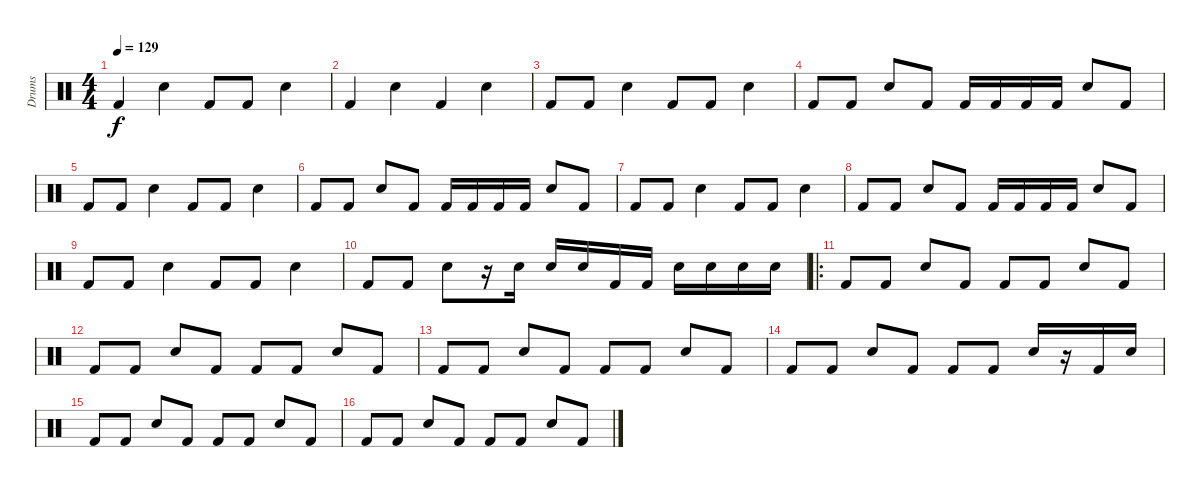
\track ("Drums" "Drums") {instrument percussion}
\staff {score}
\articulation defaults
\ts (4 4)
\tempo 129
\clef neutral
\ks c "Kick (hit) 2".4{dy f} "Snare (hit) 2".4 "Kick (hit) 2".8 "Kick (hit) 2".8 "Snare (hit) 2".4
|
"Kick (hit) 2".4 "Snare (hit) 2".4 "Kick (hit) 2".4 "Snare (hit) 2".4 |
"Kick (hit) 2".8 "Kick (hit) 2".8 "Snare (hit) 2".4 "Kick (hit) 2".8 "Kick (hit) 2".8 "Snare (hit) 2".4 |
"Kick (hit) 2".8 "Kick (hit) 2".8 "Snare (hit) 2".8 "Kick (hit) 2".8 "Kick (hit) 2".16 "Kick (hit) 2".16 "Kick (hit) 2".16 "Kick (hit) 2".16 "Snare (hit) 2".8 "Kick (hit) 2".8 |
"Kick (hit) 2".8 "Kick (hit) 2".8 "Snare (hit) 2".4 "Kick (hit) 2".8 "Kick (hit) 2".8 "Snare (hit) 2".4 |
"Kick (hit) 2".8 "Kick (hit) 2".8 "Snare (hit) 2".8 "Kick (hit) 2".8 "Kick (hit) 2".16 "Kick (hit) 2".16 "Kick (hit) 2".16 "Kick (hit) 2".16 "Snare (hit) 2".8 "Kick (hit) 2".8 |
"Kick (hit) 2".8 "Kick (hit) 2".8 "Snare (hit) 2".4 "Kick (hit) 2".8 "Kick (hit) 2".8 "Snare (hit) 2".4 |
"Kick (hit) 2".8 "Kick (hit) 2".8 "Snare (hit) 2".8 "Kick (hit) 2".8 "Kick (hit) 2".16 "Kick (hit) 2".16 "Kick (hit) 2".16 "Kick (hit) 2".16 "Snare (hit) 2".8 "Kick (hit) 2".8 |
"Kick (hit) 2".8 "Kick (hit) 2".8 "Snare (hit) 2".4 "Kick (hit) 2".8 "Kick (hit) 2".8 "Snare (hit) 2".4 |
"Kick (hit) 2".8 "Kick (hit) 2".8 "Snare (hit) 2".8 r.16 "Snare (hit) 2".16 "Snare (hit) 2".16 "Snare (hit) 2".16 "Kick (hit) 2".16 "Kick (hit) 2".16 "Snare (hit) 2".16 "Snare (hit) 2".16 "Snare (hit) 2".16 "Snare (hit) 2".16 |
\ro "Kick (hit) 2".8 "Kick (hit) 2".8 "Snare (hit) 2".8 "Kick (hit) 2".8 "Kick (hit) 2".8 "Kick (hit) 2".8 "Snare (hit) 2".8 "Kick (hit) 2".8
|
"Kick (hit) 2".8 "Kick (hit) 2".8 "Snare (hit) 2".8 "Kick (hit) 2".8 "Kick (hit) 2".8 "Kick (hit) 2".8 "Snare (hit) 2".8 "Kick (hit) 2".8 |
"Kick (hit) 2".8 "Kick (hit) 2".8 "Snare (hit) 2".8 "Kick (hit) 2".8 "Kick (hit) 2".8 "Kick (hit) 2".8 "Snare (hit) 2".8 "Kick (hit) 2".8 |
"Kick (hit) 2".8 "Kick (hit) 2".8 "Snare (hit) 2".8 "Kick (hit) 2".8 "Kick (hit) 2".8 "Kick (hit) 2".8 "Snare (hit) 2".16 r.16 "Kick (hit) 2".16 "Snare (hit) 2".16 |
"Kick (hit) 2".8 "Kick (hit) 2".8 "Snare (hit) 2".8 "Kick (hit) 2".8 "Kick (hit) 2".8 "Kick (hit) 2".8 "Snare (hit) 2".8 "Kick (hit) 2".8 |
"Kick (hit) 2".8 "Kick (hit) 2".8 "Snare (hit) 2".8 "Kick (hit) 2".8 "Kick (hit) 2".8 "Kick (hit) 2".8 "Snare (hit) 2".8 "Kick (hit) 2".8
